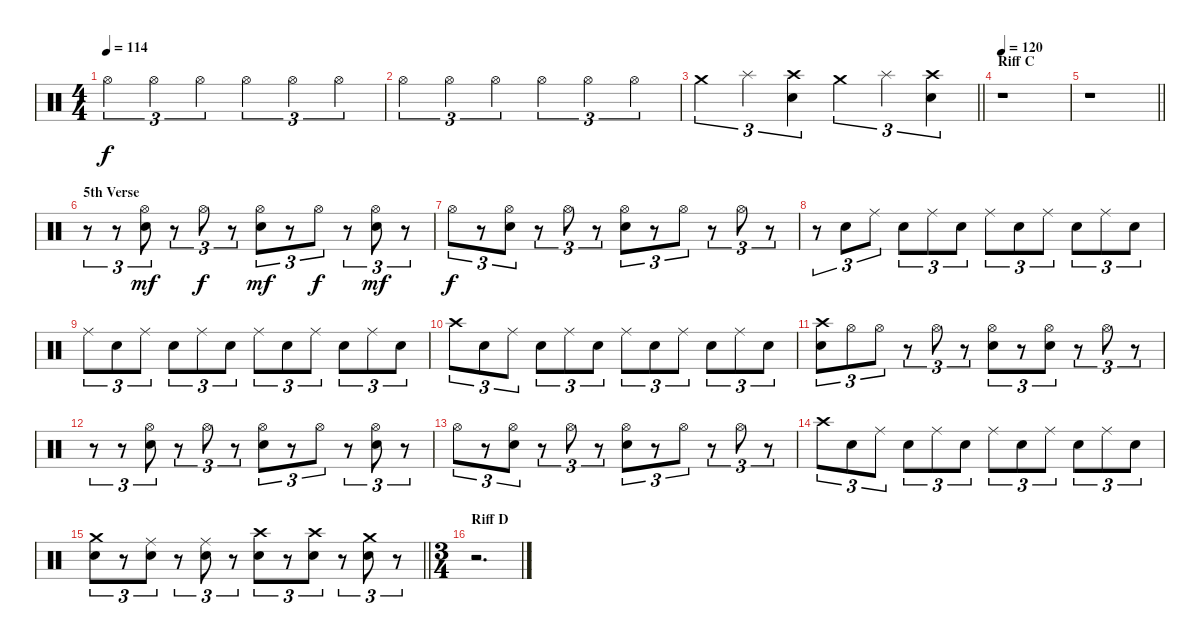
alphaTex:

\track "" {instrument percussion}
\staff {score}
\articulation defaults
\ts (4 4)
\tempo 114
\clef neutral
\ks c "Hi-Hat (open)".4{tu (3 2) dy f} "Hi-Hat (open)".4{tu (3 2)} "Hi-Hat (open)".4{tu (3 2)} "Hi-Hat (open)".4{tu (3 2)} "Hi-Hat (open)".4{tu (3 2)} "Hi-Hat (open)".4{tu (3 2)}
|
"Hi-Hat (open)".4{tu (3 2)} "Hi-Hat (open)".4{tu (3 2)} "Hi-Hat (open)".4{tu (3 2)} "Hi-Hat (open)".4{tu (3 2)} "Hi-Hat (open)".4{tu (3 2)} "Hi-Hat (open)".4{tu (3 2)} |
\barLineRight lightlight "Crash medium (hit)".4{tu (3 2)} "Splash (hit)".4{tu (3 2)}
("Crash high (hit)" "Snare (hit) 2").4{tu (3 2)} "Crash medium (hit)".4{tu (3 2)} "Splash (hit)".4{tu (3 2)} ("Crash high (hit)" "Snare (hit) 2").4{tu (3 2)} |
\section ("" "Riff C")
\tempo 120
r.1 |
\barLineRight lightlight
r.1 |
\section ("" "5th Verse")
r.8{tu (3 2)} r.8{tu (3 2)} ("Hi-Hat (open)" "Snare (hit) 2").8{tu (3 2) dy mf} r.8{tu (3 2)} "Hi-Hat (open)".8{tu (3 2) dy f} r.8{tu (3 2)} ("Hi-Hat (open)" "Snare (hit) 2").8{tu (3 2) dy mf} r.8{tu (3 2)} "Hi-Hat (open)".8{tu (3 2) dy f} r.8{tu (3 2)} ("Hi-Hat (open)" "Snare (hit) 2").8{tu (3 2) dy mf} r.8{tu (3 2)} |
"Hi-Hat (open)".8{tu (3 2) dy f} r.8{tu (3 2)} ("Hi-Hat (open)" "Snare (hit) 2").8{tu (3 2)} r.8{tu (3 2)} "Hi-Hat (open)".8{tu (3 2)} r.8{tu (3 2)} ("Hi-Hat (open)" "Snare (hit) 2").8{tu (3 2)} r.8{tu (3 2)} "Hi-Hat (open)".8{tu (3 2)} r.8{tu (3 2)} "Hi-Hat (open)".8{tu (3 2)} r.8{tu (3 2)} |
r.8{tu (3 2)} "Snare (hit) 2".8{tu (3 2)} "Ride (middle)".8{tu (3 2)} "Snare (hit) 2".8{tu (3 2)} "Ride (middle)".8{tu (3 2)} "Snare (hit) 2".8{tu (3 2)} "Ride (middle)".8{tu (3 2)} "Snare (hit) 2".8{tu (3 2)} "Ride (middle)".8{tu (3 2)} "Snare (hit) 2".8{tu (3 2)} "Ride (middle)".8{tu (3 2)} "Snare (hit) 2".8{tu (3 2)} |
"Ride (middle)".8{tu (3 2)} "Snare (hit) 2".8{tu (3 2)} "Ride (middle)".8{tu (3 2)} "Snare (hit) 2".8{tu (3 2)} "Ride (middle)".8{tu (3 2)} "Snare (hit) 2".8{tu (3 2)} "Ride (middle)".8{tu (3 2)} "Snare (hit) 2".8{tu (3 2)} "Ride (middle)".8{tu (3 2)} "Snare (hit) 2".8{tu (3 2)} "Ride (middle)".8{tu (3 2)} "Snare (hit) 2".8{tu (3 2)} |
"Crash high (hit)".8{tu (3 2)} "Snare (hit) 2".8{tu (3 2)} "Ride (middle)".8{tu (3 2)} "Snare (hit) 2".8{tu (3 2)} "Ride (middle)".8{tu (3 2)} "Snare (hit) 2".8{tu (3 2)} "Ride (middle)".8{tu (3 2)} "Snare (hit) 2".8{tu (3 2)} "Ride (middle)".8{tu (3 2)} "Snare (hit) 2".8{tu (3 2)} "Ride (middle)".8{tu (3 2)} "Snare (hit) 2".8{tu (3 2)} |
("Crash high (hit)" "Snare (hit) 2").8{tu (3 2)} "Hi-Hat (open)".8{tu (3 2)} "Hi-Hat (open)".8{tu (3 2)} r.8{tu (3 2)} "Hi-Hat (open)".8{tu (3 2)} r.8{tu (3 2)} ("Hi-Hat (open)" "Snare (hit) 2").8{tu (3 2)} r.8{tu (3 2)} ("Hi-Hat (open)" "Snare (hit) 2").8{tu (3 2)} r.8{tu (3 2)} "Hi-Hat (open)".8{tu (3 2)} r.8{tu (3 2)} |
r.8{tu (3 2)} r.8{tu (3 2)} ("Hi-Hat (open)" "Snare (hit) 2").8{tu (3 2)} r.8{tu (3 2)} "Hi-Hat (open)".8{tu (3 2)} r.8{tu (3 2)} ("Hi-Hat (open)" "Snare (hit) 2").8{tu (3 2)} r.8{tu (3 2)} "Hi-Hat (open)".8{tu (3 2)} r.8{tu (3 2)} ("Hi-Hat (open)" "Snare (hit) 2").8{tu (3 2)} r.8{tu (3 2)} |
"Hi-Hat (open)".8{tu (3 2)} r.8{tu (3 2)} ("Hi-Hat (open)" "Snare (hit) 2").8{tu (3 2)} r.8{tu (3 2)} "Hi-Hat (open)".8{tu (3 2)} r.8{tu (3 2)} ("Hi-Hat (open)" "Snare (hit) 2").8{tu (3 2)} r.8{tu (3 2)} "Hi-Hat (open)".8{tu (3 2)} r.8{tu (3 2)} "Hi-Hat (open)".8{tu (3 2)} r.8{tu (3 2)} |
"Crash high (hit)".8{tu (3 2)} "Snare (hit) 2".8{tu (3 2)} "Ride (middle)".8{tu (3 2)} "Snare (hit) 2".8{tu (3 2)} "Ride (middle)".8{tu (3 2)} "Snare (hit) 2".8{tu (3 2)} "Ride (middle)".8{tu (3 2)} "Snare (hit) 2".8{tu (3 2)} "Ride (middle)".8{tu (3 2)} "Snare (hit) 2".8{tu (3 2)} "Ride (middle)".8{tu (3 2)} "Snare (hit) 2".8{tu (3 2)} |
\barLineRight lightlight
("Crash medium (hit)" "Snare (hit) 2").8{tu (3 2)} r.8{tu (3 2)} ("Ride (middle)" "Snare (hit) 2").8{tu (3 2)} r.8{tu (3 2)} ("Ride (middle)" "Snare (hit) 2").8{tu (3 2)} r.8{tu (3 2)} ("Crash high (hit)" "Snare (hit) 2").8{tu (3 2)} r.8{tu (3 2)} ("Crash high (hit)" "Snare (hit) 2").8{tu (3 2)} r.8{tu (3 2)} ("Crash medium (hit)" "Snare (hit) 2").8{tu (3 2)} r.8{tu (3 2)} |
\ts (3 4)
\section ("" "Riff D")
r.2{d}
